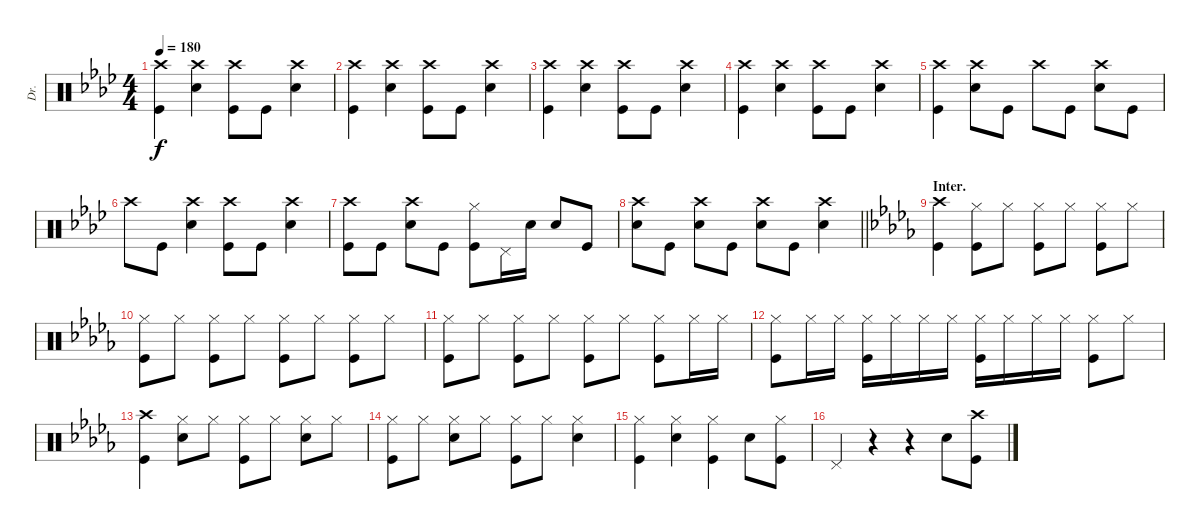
\track ("Dr." "Dr.") {instrument percussion}
\staff {score}
\articulation defaults
\ts (4 4)
\tempo 180
\clef neutral
\ks ab
("Crash high (hit)" "Kick (hit)").4{dy f} ("Crash high (hit)" "Snare (hit) 2").4 ("Crash high (hit)" "Kick (hit)").8 "Kick (hit)".8 ("Crash high (hit)" "Snare (hit) 2").4 |
("Crash high (hit)" "Kick (hit)").4 ("Crash high (hit)" "Snare (hit) 2").4 ("Crash high (hit)" "Kick (hit)").8 "Kick (hit)".8 ("Crash high (hit)" "Snare (hit) 2").4 |
("Crash high (hit)" "Kick (hit)").4 ("Crash high (hit)" "Snare (hit) 2").4 ("Crash high (hit)" "Kick (hit)").8 "Kick (hit)".8 ("Crash high (hit)" "Snare (hit) 2").4 |
("Crash high (hit)" "Kick (hit)").4 ("Crash high (hit)" "Snare (hit) 2").4 ("Crash high (hit)" "Kick (hit)").8 "Kick (hit)".8 ("Crash high (hit)" "Snare (hit) 2").4 |
("Crash high (hit)" "Kick (hit)").4 ("Crash high (hit)" "Snare (hit) 2").8 "Kick (hit)".8 "Crash high (hit)".8 "Kick (hit)".8 ("Crash high (hit)" "Snare (hit) 2").8 "Kick (hit)".8 |
"Crash high (hit)".8 "Kick (hit)".8 ("Crash high (hit)" "Snare (hit) 2").4 ("Crash high (hit)" "Kick (hit)").8 "Kick (hit)".8 ("Crash high (hit)" "Snare (hit) 2").4 |
("Crash high (hit)" "Kick (hit)").8 "Kick (hit)".8 ("Crash high (hit)" "Snare (hit) 2").8 "Kick (hit)".8 ("Hi-Hat (closed)" "Kick (hit)").8 "Pedal Hi-Hat (hit)".16 "Snare (hit) 2".16 "Snare (hit) 2".8 "Kick (hit)".8 |
\barLineRight lightlight
("Crash high (hit)" "Snare (hit) 2").8 "Kick (hit)".8 ("Crash high (hit)" "Snare (hit) 2").8 "Kick (hit)".8 ("Crash high (hit)" "Snare (hit) 2").8 "Kick (hit)".8 ("Crash high (hit)" "Snare (hit) 2").4 |
\section ("" "Inter.")
\ks db
("Crash high (hit)" "Kick (hit)").4 ("Hi-Hat (closed)" "Kick (hit)").8 "Hi-Hat (closed)".8 ("Hi-Hat (closed)" "Kick (hit)").8 "Hi-Hat (closed)".8 ("Hi-Hat (closed)" "Kick (hit)").8 "Hi-Hat (closed)".8 |
("Hi-Hat (closed)" "Kick (hit)").8 "Hi-Hat (closed)".8 ("Hi-Hat (closed)" "Kick (hit)").8 "Hi-Hat (closed)".8 ("Hi-Hat (closed)" "Kick (hit)").8 "Hi-Hat (closed)".8 ("Hi-Hat (closed)" "Kick (hit)").8 "Hi-Hat (closed)".8 |
("Hi-Hat (closed)" "Kick (hit)").8 "Hi-Hat (closed)".8 ("Hi-Hat (closed)" "Kick (hit)").8 "Hi-Hat (closed)".8 ("Hi-Hat (closed)" "Kick (hit)").8 "Hi-Hat (closed)".8 ("Hi-Hat (closed)" "Kick (hit)").8 "Hi-Hat (closed)".16 "Hi-Hat (closed)".16 |
("Hi-Hat (closed)" "Kick (hit)").8 "Hi-Hat (closed)".16 "Hi-Hat (closed)".16 ("Hi-Hat (closed)" "Kick (hit)").16 "Hi-Hat (closed)".16 "Hi-Hat (closed)".16 "Hi-Hat (closed)".16 ("Hi-Hat (closed)" "Kick (hit)").16 "Hi-Hat (closed)".16 "Hi-Hat (closed)".16 "Hi-Hat (closed)".16 ("Hi-Hat (closed)" "Kick (hit)").8 "Hi-Hat (closed)".8 |
("Crash high (hit)" "Kick (hit)").4 ("Hi-Hat (closed)" "Snare (hit) 2").8 "Hi-Hat (closed)".8 ("Hi-Hat (closed)" "Kick (hit)").8 "Hi-Hat (closed)".8 ("Hi-Hat (closed)" "Snare (hit) 2").8 "Hi-Hat (closed)".8 |
("Hi-Hat (closed)" "Kick (hit)").8 "Hi-Hat (closed)".8 ("Hi-Hat (closed)" "Snare (hit) 2").8 "Hi-Hat (closed)".8 ("Hi-Hat (closed)" "Kick (hit)").8 "Hi-Hat (closed)".8 ("Hi-Hat (closed)" "Snare (hit) 2").4 |
("Hi-Hat (closed)" "Kick (hit)").4 ("Hi-Hat (closed)" "Snare (hit) 2").4 ("Hi-Hat (closed)" "Kick (hit)").4 "Snare (hit) 2".8 ("Hi-Hat (closed)" "Kick (hit)").8 |
"Pedal Hi-Hat (hit)".4 r.4 r.4 "Snare (hit) 2".8 ("Crash high (hit)" "Kick (hit)").8
